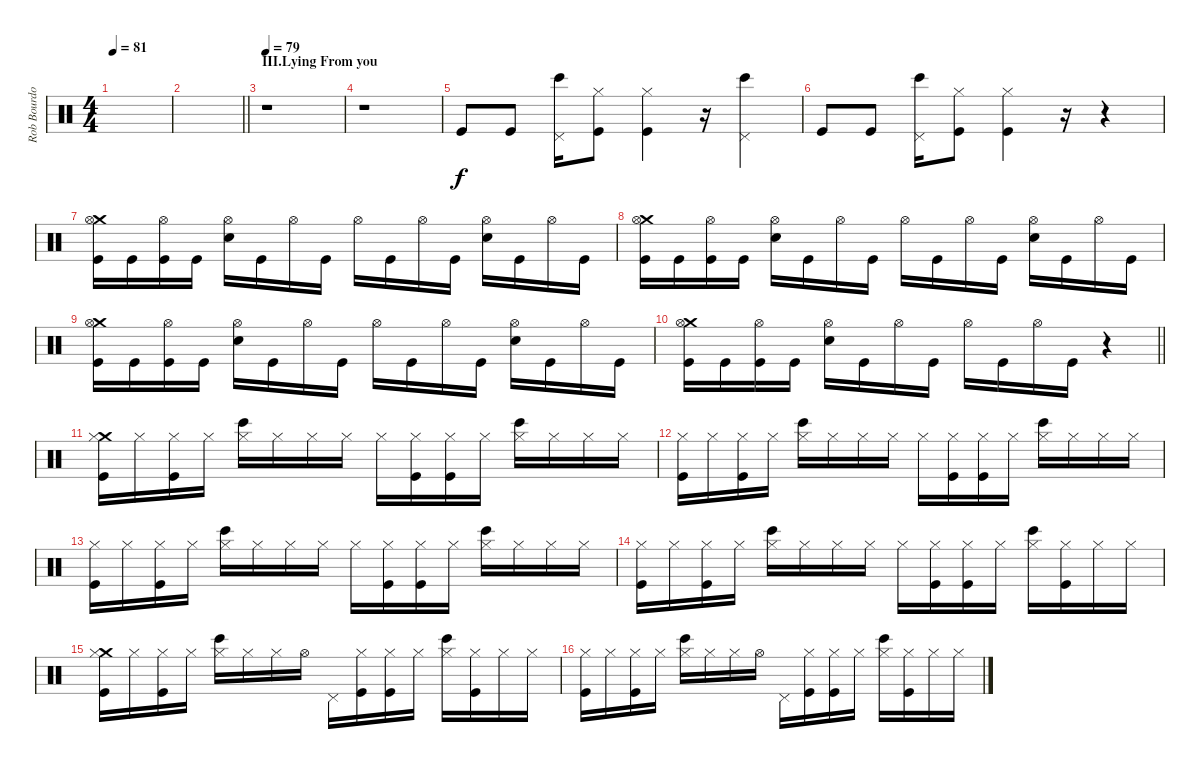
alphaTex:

\track ("Rob Bourdon - Drums" "Rob Bourdo") {instrument percussion}
\staff {score}
\articulation defaults
\ts (4 4)
\tempo 81
\clef neutral
\ks c
|
\barLineRight lightlight
|
\section ("" "III.Lying From you")
\tempo 79
r.1 |
r.1 |
"Kick (hit)".8 "Kick (hit)".8 ("Pedal Hi-Hat (hit)" "Bongo High (hit)").16 ("Hi-Hat (closed)" "Kick (hit)").8 ("Hi-Hat (closed)" "Kick (hit)").4 r.16 ("Pedal Hi-Hat (hit)" "Bongo High (hit)").4 |
"Kick (hit)".8 "Kick (hit)".8 ("Pedal Hi-Hat (hit)" "Bongo High (hit)").16 ("Hi-Hat (closed)" "Kick (hit)").8 ("Hi-Hat (closed)" "Kick (hit)").4 r.16 r.4 |
("Crash medium (hit)" "Hi-Hat (open)" "Kick (hit)").16 "Kick (hit)".16 ("Hi-Hat (open)" "Kick (hit)").16 "Kick (hit)".16 ("Hi-Hat (open)" "Electric Snare (hit)").16 "Kick (hit)".16 "Hi-Hat (open)".16 "Kick (hit)".16 "Hi-Hat (open)".16 "Kick (hit)".16 "Hi-Hat (open)".16 "Kick (hit)".16 ("Hi-Hat (open)" "Electric Snare (hit)").16 "Kick (hit)".16 "Hi-Hat (open)".16 "Kick (hit)".16 |
("Crash medium (hit)" "Hi-Hat (open)" "Kick (hit)").16 "Kick (hit)".16 ("Hi-Hat (open)" "Kick (hit)").16 "Kick (hit)".16 ("Hi-Hat (open)" "Electric Snare (hit)").16 "Kick (hit)".16 "Hi-Hat (open)".16 "Kick (hit)".16 "Hi-Hat (open)".16 "Kick (hit)".16 "Hi-Hat (open)".16 "Kick (hit)".16 ("Hi-Hat (open)" "Electric Snare (hit)").16 "Kick (hit)".16 "Hi-Hat (open)".16 "Kick (hit)".16 |
("Crash medium (hit)" "Hi-Hat (open)" "Kick (hit)").16 "Kick (hit)".16 ("Hi-Hat (open)" "Kick (hit)").16 "Kick (hit)".16 ("Hi-Hat (open)" "Electric Snare (hit)").16 "Kick (hit)".16 "Hi-Hat (open)".16 "Kick (hit)".16 "Hi-Hat (open)".16 "Kick (hit)".16 "Hi-Hat (open)".16 "Kick (hit)".16 ("Hi-Hat (open)" "Electric Snare (hit)").16 "Kick (hit)".16 "Hi-Hat (open)".16 "Kick (hit)".16 |
\barLineRight lightlight
("Crash medium (hit)" "Hi-Hat (open)" "Kick (hit)").16 "Kick (hit)".16 ("Hi-Hat (open)" "Kick (hit)").16 "Kick (hit)".16 ("Hi-Hat (open)" "Electric Snare (hit)").16 "Kick (hit)".16 "Hi-Hat (open)".16 "Kick (hit)".16 "Hi-Hat (open)".16 "Kick (hit)".16 "Hi-Hat (open)".16 "Kick (hit)".16 r.4 |
("Crash medium (hit)" "Hi-Hat (closed)" "Kick (hit)").16 "Hi-Hat (closed)".16 ("Hi-Hat (closed)" "Kick (hit)").16 "Hi-Hat (closed)".16 ("Hi-Hat (closed)" "Bongo High (hit)").16 "Hi-Hat (closed)".16 "Hi-Hat (closed)".16 "Hi-Hat (closed)".16 "Hi-Hat (closed)".16 ("Hi-Hat (closed)" "Kick (hit)").16 ("Hi-Hat (closed)" "Kick (hit)").16 "Hi-Hat (closed)".16 ("Hi-Hat (closed)" "Bongo High (hit)").16 "Hi-Hat (closed)".16 "Hi-Hat (closed)".16 "Hi-Hat (closed)".16 |
("Hi-Hat (closed)" "Kick (hit)").16 "Hi-Hat (closed)".16 ("Hi-Hat (closed)" "Kick (hit)").16 "Hi-Hat (closed)".16 ("Hi-Hat (closed)" "Bongo High (hit)").16 "Hi-Hat (closed)".16 "Hi-Hat (closed)".16 "Hi-Hat (closed)".16 "Hi-Hat (closed)".16 ("Hi-Hat (closed)" "Kick (hit)").16 ("Hi-Hat (closed)" "Kick (hit)").16 "Hi-Hat (closed)".16 ("Hi-Hat (closed)" "Bongo High (hit)").16 "Hi-Hat (closed)".16 "Hi-Hat (closed)".16 "Hi-Hat (closed)".16 |
("Hi-Hat (closed)" "Kick (hit)").16 "Hi-Hat (closed)".16 ("Hi-Hat (closed)" "Kick (hit)").16 "Hi-Hat (closed)".16 ("Hi-Hat (closed)" "Bongo High (hit)").16 "Hi-Hat (closed)".16 "Hi-Hat (closed)".16 "Hi-Hat (closed)".16 "Hi-Hat (closed)".16 ("Hi-Hat (closed)" "Kick (hit)").16 ("Hi-Hat (closed)" "Kick (hit)").16 "Hi-Hat (closed)".16 ("Hi-Hat (closed)" "Bongo High (hit)").16 "Hi-Hat (closed)".16 "Hi-Hat (closed)".16 "Hi-Hat (closed)".16 |
("Hi-Hat (closed)" "Kick (hit)").16 "Hi-Hat (closed)".16 ("Hi-Hat (closed)" "Kick (hit)").16 "Hi-Hat (closed)".16 ("Hi-Hat (closed)" "Bongo High (hit)").16 "Hi-Hat (closed)".16 "Hi-Hat (closed)".16 "Hi-Hat (closed)".16 "Hi-Hat (closed)".16 ("Hi-Hat (closed)" "Kick (hit)").16 ("Hi-Hat (closed)" "Kick (hit)").16 "Hi-Hat (closed)".16 ("Hi-Hat (closed)" "Bongo High (hit)").16 ("Hi-Hat (closed)" "Kick (hit)").16 "Hi-Hat (closed)".16 "Hi-Hat (closed)".16 |
("Crash medium (hit)" "Hi-Hat (closed)" "Kick (hit)").16 "Hi-Hat (closed)".16 ("Hi-Hat (closed)" "Kick (hit)").16 "Hi-Hat (closed)".16 ("Hi-Hat (closed)" "Bongo High (hit)").16 "Hi-Hat (closed)".16 "Hi-Hat (closed)".16 "Hi-Hat (open)".16 "Pedal Hi-Hat (hit)".16 ("Hi-Hat (closed)" "Kick (hit)").16 ("Hi-Hat (closed)" "Kick (hit)").16 "Hi-Hat (closed)".16 ("Hi-Hat (closed)" "Bongo High (hit)").16 ("Hi-Hat (closed)" "Kick (hit)").16 "Hi-Hat (closed)".16 "Hi-Hat (closed)".16 |
("Hi-Hat (closed)" "Kick (hit)").16 "Hi-Hat (closed)".16 ("Hi-Hat (closed)" "Kick (hit)").16 "Hi-Hat (closed)".16 ("Hi-Hat (closed)" "Bongo High (hit)").16 "Hi-Hat (closed)".16 "Hi-Hat (closed)".16 "Hi-Hat (open)".16 "Pedal Hi-Hat (hit)".16 ("Hi-Hat (closed)" "Kick (hit)").16 ("Hi-Hat (closed)" "Kick (hit)").16 "Hi-Hat (closed)".16 ("Hi-Hat (closed)" "Bongo High (hit)").16 ("Hi-Hat (closed)" "Kick (hit)").16 "Hi-Hat (closed)".16 "Hi-Hat (closed)".16
